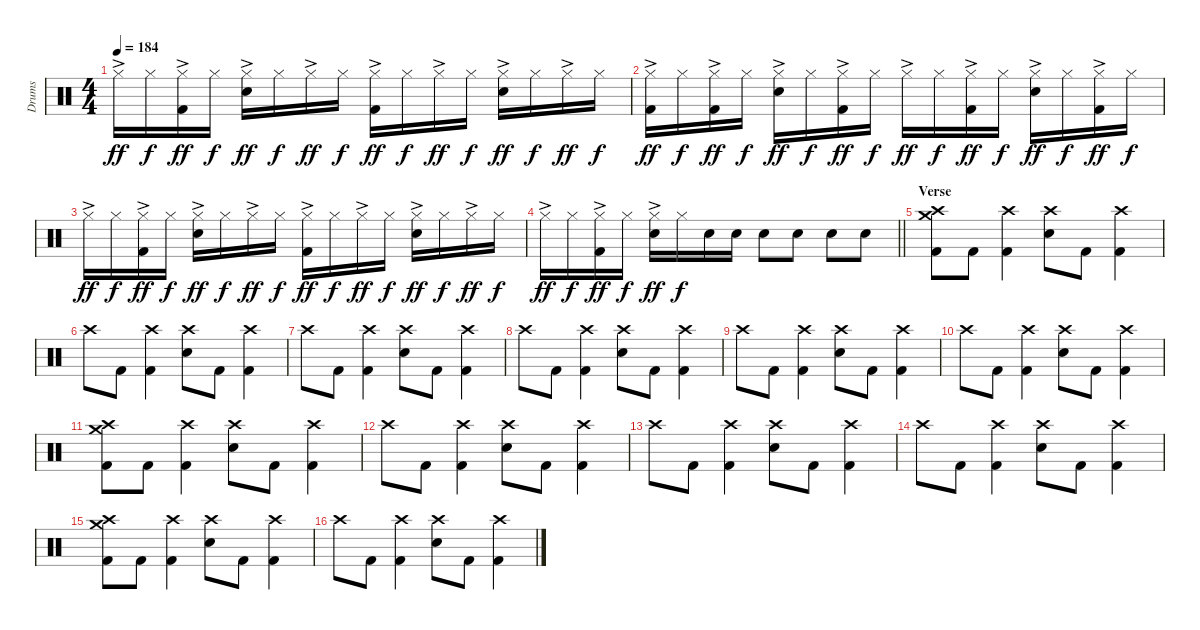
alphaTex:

\track ("Drums" "Drums") {instrument percussion}
\staff {score}
\articulation defaults
\ts (4 4)
\tempo 184
\clef neutral
\ks c "Hi-Hat (closed)"{ac}.16{dy ff} "Hi-Hat (closed)".16{dy f}
("Hi-Hat (closed)"{ac} "Kick (hit) 2").16{dy ff} "Hi-Hat (closed)".16{dy f} ("Hi-Hat (closed)"{ac} "Electric Snare (hit)").16{dy ff} "Hi-Hat (closed)".16{dy f} "Hi-Hat (closed)"{ac}.16{dy ff} "Hi-Hat (closed)".16{dy f} ("Hi-Hat (closed)"{ac} "Kick (hit) 2").16{dy ff} "Hi-Hat (closed)".16{dy f} "Hi-Hat (closed)"{ac}.16{dy ff} "Hi-Hat (closed)".16{dy f} ("Hi-Hat (closed)"{ac} "Electric Snare (hit)").16{dy ff} "Hi-Hat (closed)".16{dy f} "Hi-Hat (closed)"{ac}.16{dy ff} "Hi-Hat (closed)".16{dy f} |
("Hi-Hat (closed)"{ac} "Kick (hit) 2").16{dy ff} "Hi-Hat (closed)".16{dy f} ("Hi-Hat (closed)"{ac} "Kick (hit) 2").16{dy ff} "Hi-Hat (closed)".16{dy f} ("Hi-Hat (closed)"{ac} "Electric Snare (hit)").16{dy ff} "Hi-Hat (closed)".16{dy f} ("Hi-Hat (closed)"{ac} "Kick (hit) 2").16{dy ff} "Hi-Hat (closed)".16{dy f} "Hi-Hat (closed)"{ac}.16{dy ff} "Hi-Hat (closed)".16{dy f} ("Hi-Hat (closed)"{ac} "Kick (hit) 2").16{dy ff} "Hi-Hat (closed)".16{dy f} ("Hi-Hat (closed)"{ac} "Electric Snare (hit)").16{dy ff} "Hi-Hat (closed)".16{dy f} ("Hi-Hat (closed)"{ac} "Kick (hit) 2").16{dy ff} "Hi-Hat (closed)".16{dy f} |
"Hi-Hat (closed)"{ac}.16{dy ff} "Hi-Hat (closed)".16{dy f} ("Hi-Hat (closed)"{ac} "Kick (hit) 2").16{dy ff} "Hi-Hat (closed)".16{dy f} ("Hi-Hat (closed)"{ac} "Electric Snare (hit)").16{dy ff} "Hi-Hat (closed)".16{dy f} "Hi-Hat (closed)"{ac}.16{dy ff} "Hi-Hat (closed)".16{dy f} ("Hi-Hat (closed)"{ac} "Kick (hit) 2").16{dy ff} "Hi-Hat (closed)".16{dy f} "Hi-Hat (closed)"{ac}.16{dy ff} "Hi-Hat (closed)".16{dy f} ("Hi-Hat (closed)"{ac} "Electric Snare (hit)").16{dy ff} "Hi-Hat (closed)".16{dy f} "Hi-Hat (closed)"{ac}.16{dy ff} "Hi-Hat (closed)".16{dy f} |
\barLineRight lightlight "Hi-Hat (closed)"{ac}.16{dy ff} "Hi-Hat (closed)".16{dy f}
("Hi-Hat (closed)"{ac} "Kick (hit) 2").16{dy ff} "Hi-Hat (closed)".16{dy f} ("Hi-Hat (closed)"{ac} "Electric Snare (hit)").16{dy ff} "Hi-Hat (closed)".16{dy f} "Electric Snare (hit)".16 "Electric Snare (hit)".16 "Electric Snare (hit)".8 "Electric Snare (hit)".8 "Electric Snare (hit)".8 "Electric Snare (hit)".8 |
\section ("" "Verse")
("Crash medium (hit)" "Crash high (hit)" "Kick (hit) 2").8 "Kick (hit) 2".8 ("Crash high (hit)" "Kick (hit) 2").4 ("Crash high (hit)" "Electric Snare (hit)").8 "Kick (hit) 2".8 ("Crash high (hit)" "Kick (hit) 2").4 |
"Crash high (hit)".8 "Kick (hit) 2".8 ("Crash high (hit)" "Kick (hit) 2").4 ("Crash high (hit)" "Electric Snare (hit)").8 "Kick (hit) 2".8 ("Crash high (hit)" "Kick (hit) 2").4 |
"Crash high (hit)".8 "Kick (hit) 2".8 ("Crash high (hit)" "Kick (hit) 2").4 ("Crash high (hit)" "Electric Snare (hit)").8 "Kick (hit) 2".8 ("Crash high (hit)" "Kick (hit) 2").4 |
"Crash high (hit)".8 "Kick (hit) 2".8 ("Crash high (hit)" "Kick (hit) 2").4 ("Crash high (hit)" "Electric Snare (hit)").8 "Kick (hit) 2".8 ("Crash high (hit)" "Kick (hit) 2").4 |
"Crash high (hit)".8 "Kick (hit) 2".8 ("Crash high (hit)" "Kick (hit) 2").4 ("Crash high (hit)" "Electric Snare (hit)").8 "Kick (hit) 2".8 ("Crash high (hit)" "Kick (hit) 2").4 |
"Crash high (hit)".8 "Kick (hit) 2".8 ("Crash high (hit)" "Kick (hit) 2").4 ("Crash high (hit)" "Electric Snare (hit)").8 "Kick (hit) 2".8 ("Crash high (hit)" "Kick (hit) 2").4 |
("Crash medium (hit)" "Crash high (hit)" "Kick (hit) 2").8 "Kick (hit) 2".8 ("Crash high (hit)" "Kick (hit) 2").4 ("Crash high (hit)" "Electric Snare (hit)").8 "Kick (hit) 2".8 ("Crash high (hit)" "Kick (hit) 2").4 |
"Crash high (hit)".8 "Kick (hit) 2".8 ("Crash high (hit)" "Kick (hit) 2").4 ("Crash high (hit)" "Electric Snare (hit)").8 "Kick (hit) 2".8 ("Crash high (hit)" "Kick (hit) 2").4 |
"Crash high (hit)".8 "Kick (hit) 2".8 ("Crash high (hit)" "Kick (hit) 2").4 ("Crash high (hit)" "Electric Snare (hit)").8 "Kick (hit) 2".8 ("Crash high (hit)" "Kick (hit) 2").4 |
"Crash high (hit)".8 "Kick (hit) 2".8 ("Crash high (hit)" "Kick (hit) 2").4 ("Crash high (hit)" "Electric Snare (hit)").8 "Kick (hit) 2".8 ("Crash high (hit)" "Kick (hit) 2").4 |
("Crash medium (hit)" "Crash high (hit)" "Kick (hit) 2").8 "Kick (hit) 2".8 ("Crash high (hit)" "Kick (hit) 2").4 ("Crash high (hit)" "Electric Snare (hit)").8 "Kick (hit) 2".8 ("Crash high (hit)" "Kick (hit) 2").4 |
"Crash high (hit)".8 "Kick (hit) 2".8 ("Crash high (hit)" "Kick (hit) 2").4 ("Crash high (hit)" "Electric Snare (hit)").8 "Kick (hit) 2".8 ("Crash high (hit)" "Kick (hit) 2").4
